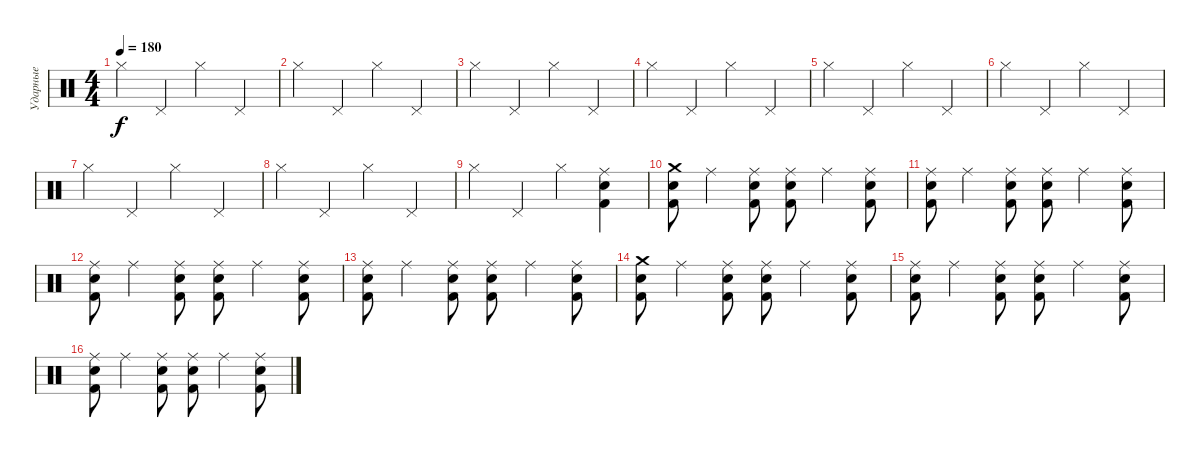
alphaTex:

\track ("Ударные" "Ударные") {instrument percussion}
\staff {score}
\articulation defaults
\ts (4 4)
\tempo 180
\clef neutral
\ks c "Hi-Hat (closed)".4{dy f} "Pedal Hi-Hat (hit)".4 "Hi-Hat (closed)".4 "Pedal Hi-Hat (hit)".4
|
"Hi-Hat (closed)".4 "Pedal Hi-Hat (hit)".4 "Hi-Hat (closed)".4 "Pedal Hi-Hat (hit)".4 |
"Hi-Hat (closed)".4 "Pedal Hi-Hat (hit)".4 "Hi-Hat (closed)".4 "Pedal Hi-Hat (hit)".4 |
"Hi-Hat (closed)".4 "Pedal Hi-Hat (hit)".4 "Hi-Hat (closed)".4 "Pedal Hi-Hat (hit)".4 |
"Hi-Hat (closed)".4 "Pedal Hi-Hat (hit)".4 "Hi-Hat (closed)".4 "Pedal Hi-Hat (hit)".4 |
"Hi-Hat (closed)".4 "Pedal Hi-Hat (hit)".4 "Hi-Hat (closed)".4 "Pedal Hi-Hat (hit)".4 |
"Hi-Hat (closed)".4 "Pedal Hi-Hat (hit)".4 "Hi-Hat (closed)".4 "Pedal Hi-Hat (hit)".4 |
"Hi-Hat (closed)".4 "Pedal Hi-Hat (hit)".4 "Hi-Hat (closed)".4 "Pedal Hi-Hat (hit)".4 |
"Hi-Hat (closed)".4 "Pedal Hi-Hat (hit)".4 "Hi-Hat (closed)".4 ("Ride (middle)" "Electric Snare (hit)" "Kick (hit) 2").4 |
("Crash medium (hit)" "Electric Snare (hit)" "Kick (hit) 2").8 "Ride (middle)".4 ("Ride (middle)" "Electric Snare (hit)" "Kick (hit) 2").8 ("Ride (middle)" "Electric Snare (hit)" "Kick (hit) 2").8 "Ride (middle)".4 ("Ride (middle)" "Electric Snare (hit)" "Kick (hit) 2").8 |
("Ride (middle)" "Electric Snare (hit)" "Kick (hit) 2").8 "Ride (middle)".4 ("Ride (middle)" "Electric Snare (hit)" "Kick (hit) 2").8 ("Ride (middle)" "Electric Snare (hit)" "Kick (hit) 2").8 "Ride (middle)".4 ("Ride (middle)" "Electric Snare (hit)" "Kick (hit) 2").8 |
("Ride (middle)" "Electric Snare (hit)" "Kick (hit) 2").8 "Ride (middle)".4 ("Ride (middle)" "Electric Snare (hit)" "Kick (hit) 2").8 ("Ride (middle)" "Electric Snare (hit)" "Kick (hit) 2").8 "Ride (middle)".4 ("Ride (middle)" "Electric Snare (hit)" "Kick (hit) 2").8 |
("Ride (middle)" "Electric Snare (hit)" "Kick (hit) 2").8 "Ride (middle)".4 ("Ride (middle)" "Electric Snare (hit)" "Kick (hit) 2").8 ("Ride (middle)" "Electric Snare (hit)" "Kick (hit) 2").8 "Ride (middle)".4 ("Ride (middle)" "Electric Snare (hit)" "Kick (hit) 2").8 |
("Crash medium (hit)" "Electric Snare (hit)" "Kick (hit) 2").8 "Ride (middle)".4 ("Ride (middle)" "Electric Snare (hit)" "Kick (hit) 2").8 ("Ride (middle)" "Electric Snare (hit)" "Kick (hit) 2").8 "Ride (middle)".4 ("Ride (middle)" "Electric Snare (hit)" "Kick (hit) 2").8 |
("Ride (middle)" "Electric Snare (hit)" "Kick (hit) 2").8 "Ride (middle)".4 ("Ride (middle)" "Electric Snare (hit)" "Kick (hit) 2").8 ("Ride (middle)" "Electric Snare (hit)" "Kick (hit) 2").8 "Ride (middle)".4 ("Ride (middle)" "Electric Snare (hit)" "Kick (hit) 2").8 |
("Ride (middle)" "Electric Snare (hit)" "Kick (hit) 2").8 "Ride (middle)".4 ("Ride (middle)" "Electric Snare (hit)" "Kick (hit) 2").8 ("Ride (middle)" "Electric Snare (hit)" "Kick (hit) 2").8 "Ride (middle)".4 ("Ride (middle)" "Electric Snare (hit)" "Kick (hit) 2").8
